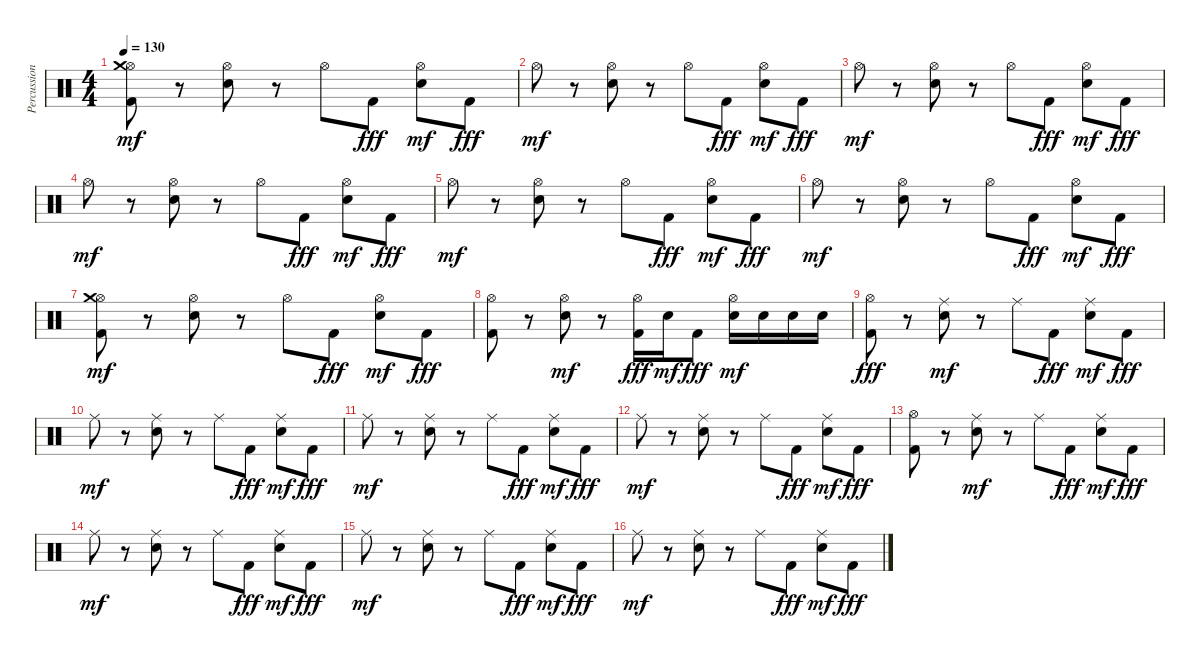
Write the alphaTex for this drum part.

\track ("Percussion" "Percussion") {instrument percussion}
\staff {score}
\articulation defaults
\ts (4 4)
\tempo 130
\clef neutral
\ks c
("Hi-Hat (open)" "Kick (hit) 2" "Crash medium (hit)").8{dy mf} r.8 ("Hi-Hat (open)" "Electric Snare (hit)").8 r.8 "Hi-Hat (open)".8 "Kick (hit) 2".8{dy fff} ("Hi-Hat (open)" "Electric Snare (hit)").8{dy mf} "Kick (hit) 2".8{dy fff} |
"Hi-Hat (open)".8{dy mf} r.8 ("Hi-Hat (open)" "Electric Snare (hit)").8 r.8 "Hi-Hat (open)".8 "Kick (hit) 2".8{dy fff} ("Hi-Hat (open)" "Electric Snare (hit)").8{dy mf} "Kick (hit) 2".8{dy fff} |
"Hi-Hat (open)".8{dy mf} r.8 ("Hi-Hat (open)" "Electric Snare (hit)").8 r.8 "Hi-Hat (open)".8 "Kick (hit) 2".8{dy fff} ("Hi-Hat (open)" "Electric Snare (hit)").8{dy mf} "Kick (hit) 2".8{dy fff} |
"Hi-Hat (open)".8{dy mf} r.8 ("Hi-Hat (open)" "Electric Snare (hit)").8 r.8 "Hi-Hat (open)".8 "Kick (hit) 2".8{dy fff} ("Hi-Hat (open)" "Electric Snare (hit)").8{dy mf} "Kick (hit) 2".8{dy fff} |
"Hi-Hat (open)".8{dy mf} r.8 ("Hi-Hat (open)" "Electric Snare (hit)").8 r.8 "Hi-Hat (open)".8 "Kick (hit) 2".8{dy fff} ("Hi-Hat (open)" "Electric Snare (hit)").8{dy mf} "Kick (hit) 2".8{dy fff} |
"Hi-Hat (open)".8{dy mf} r.8 ("Hi-Hat (open)" "Electric Snare (hit)").8 r.8 "Hi-Hat (open)".8 "Kick (hit) 2".8{dy fff} ("Hi-Hat (open)" "Electric Snare (hit)").8{dy mf} "Kick (hit) 2".8{dy fff} |
("Hi-Hat (open)" "Kick (hit) 2" "Crash medium (hit)").8{dy mf} r.8 ("Hi-Hat (open)" "Electric Snare (hit)").8 r.8 "Hi-Hat (open)".8 "Kick (hit) 2".8{dy fff} ("Hi-Hat (open)" "Electric Snare (hit)").8{dy mf} "Kick (hit) 2".8{dy fff} |
("Hi-Hat (open)" "Kick (hit) 2").8 r.8 ("Hi-Hat (open)" "Electric Snare (hit)").8{dy mf} r.8 ("Hi-Hat (open)" "Kick (hit) 2").16{dy fff} "Electric Snare (hit)".16{dy mf} "Kick (hit) 2".8{dy fff} ("Hi-Hat (open)" "Electric Snare (hit)").16{dy mf} "Electric Snare (hit)".16 "Electric Snare (hit)".16 "Electric Snare (hit)".16 |
("Hi-Hat (open)" "Kick (hit) 2").8{dy fff} r.8 ("Ride (middle)" "Electric Snare (hit)").8{dy mf} r.8 "Ride (middle)".8 "Kick (hit) 2".8{dy fff} ("Ride (middle)" "Electric Snare (hit)").8{dy mf} "Kick (hit) 2".8{dy fff} |
"Ride (middle)".8{dy mf} r.8 ("Ride (middle)" "Electric Snare (hit)").8 r.8 "Ride (middle)".8 "Kick (hit) 2".8{dy fff} ("Ride (middle)" "Electric Snare (hit)").8{dy mf} "Kick (hit) 2".8{dy fff} |
"Ride (middle)".8{dy mf} r.8 ("Ride (middle)" "Electric Snare (hit)").8 r.8 "Ride (middle)".8 "Kick (hit) 2".8{dy fff} ("Ride (middle)" "Electric Snare (hit)").8{dy mf} "Kick (hit) 2".8{dy fff} |
"Ride (middle)".8{dy mf} r.8 ("Ride (middle)" "Electric Snare (hit)").8 r.8 "Ride (middle)".8 "Kick (hit) 2".8{dy fff} ("Ride (middle)" "Electric Snare (hit)").8{dy mf} "Kick (hit) 2".8{dy fff} |
("Hi-Hat (open)" "Kick (hit) 2").8 r.8 ("Ride (middle)" "Electric Snare (hit)").8{dy mf} r.8 "Ride (middle)".8 "Kick (hit) 2".8{dy fff} ("Ride (middle)" "Electric Snare (hit)").8{dy mf} "Kick (hit) 2".8{dy fff} |
"Ride (middle)".8{dy mf} r.8 ("Ride (middle)" "Electric Snare (hit)").8 r.8 "Ride (middle)".8 "Kick (hit) 2".8{dy fff} ("Ride (middle)" "Electric Snare (hit)").8{dy mf} "Kick (hit) 2".8{dy fff} |
"Ride (middle)".8{dy mf} r.8 ("Ride (middle)" "Electric Snare (hit)").8 r.8 "Ride (middle)".8 "Kick (hit) 2".8{dy fff} ("Ride (middle)" "Electric Snare (hit)").8{dy mf} "Kick (hit) 2".8{dy fff} |
"Ride (middle)".8{dy mf} r.8 ("Ride (middle)" "Electric Snare (hit)").8 r.8 "Ride (middle)".8 "Kick (hit) 2".8{dy fff} ("Ride (middle)" "Electric Snare (hit)").8{dy mf} "Kick (hit) 2".8{dy fff}
